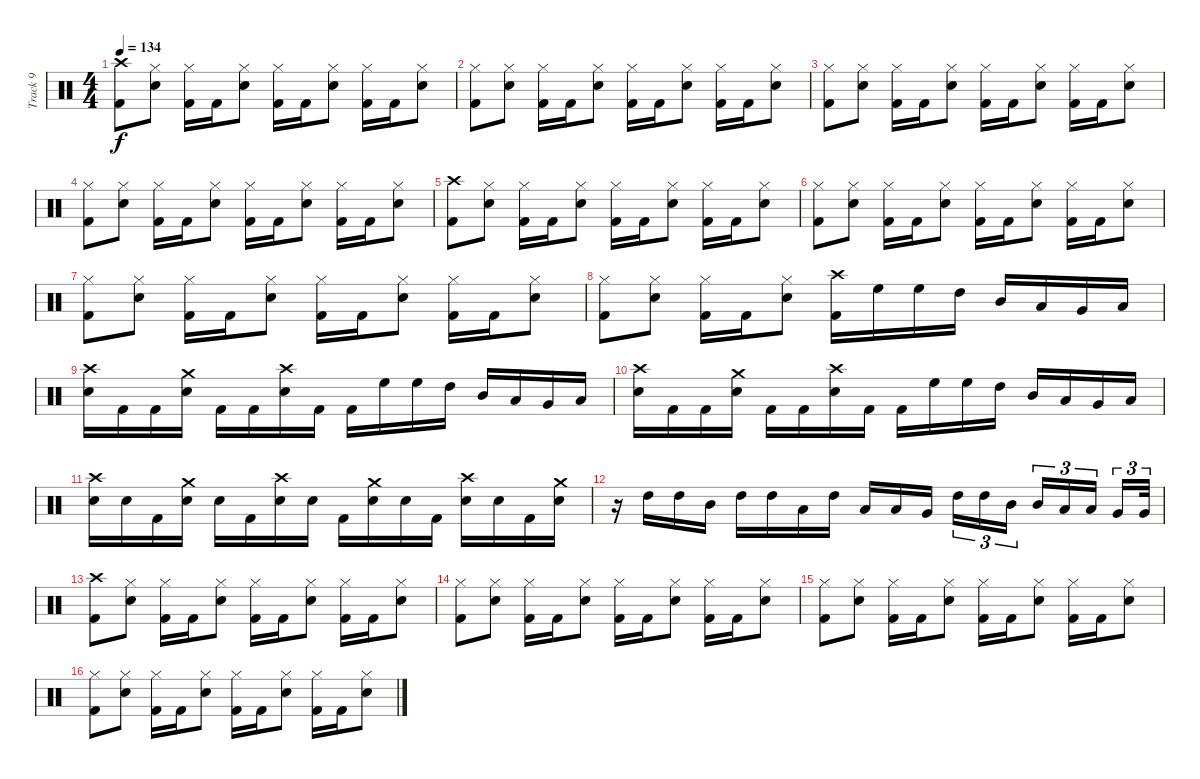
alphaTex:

\track ("Track 9" "Track 9") {instrument percussion}
\staff {score}
\articulation defaults
\ts (4 4)
\tempo 134
\clef neutral
\ks c
("Crash high (hit)" "Kick (hit) 2").8{dy f} ("Hi-Hat (closed)" "Snare (hit) 2").8 ("Hi-Hat (closed)" "Kick (hit) 2").16 "Kick (hit) 2".16 ("Hi-Hat (closed)" "Snare (hit) 2").8 ("Hi-Hat (closed)" "Kick (hit) 2").16 "Kick (hit) 2".16 ("Hi-Hat (closed)" "Snare (hit) 2").8 ("Hi-Hat (closed)" "Kick (hit) 2").16 "Kick (hit) 2".16 ("Hi-Hat (closed)" "Snare (hit) 2").8 |
("Hi-Hat (closed)" "Kick (hit) 2").8 ("Hi-Hat (closed)" "Snare (hit) 2").8 ("Hi-Hat (closed)" "Kick (hit) 2").16 "Kick (hit) 2".16 ("Hi-Hat (closed)" "Snare (hit) 2").8 ("Hi-Hat (closed)" "Kick (hit) 2").16 "Kick (hit) 2".16 ("Hi-Hat (closed)" "Snare (hit) 2").8 ("Hi-Hat (closed)" "Kick (hit) 2").16 "Kick (hit) 2".16 ("Hi-Hat (closed)" "Snare (hit) 2").8 |
("Hi-Hat (closed)" "Kick (hit) 2").8 ("Hi-Hat (closed)" "Snare (hit) 2").8 ("Hi-Hat (closed)" "Kick (hit) 2").16 "Kick (hit) 2".16 ("Hi-Hat (closed)" "Snare (hit) 2").8 ("Hi-Hat (closed)" "Kick (hit) 2").16 "Kick (hit) 2".16 ("Hi-Hat (closed)" "Snare (hit) 2").8 ("Hi-Hat (closed)" "Kick (hit) 2").16 "Kick (hit) 2".16 ("Hi-Hat (closed)" "Snare (hit) 2").8 |
("Hi-Hat (closed)" "Kick (hit) 2").8 ("Hi-Hat (closed)" "Snare (hit) 2").8 ("Hi-Hat (closed)" "Kick (hit) 2").16 "Kick (hit) 2".16 ("Hi-Hat (closed)" "Snare (hit) 2").8 ("Hi-Hat (closed)" "Kick (hit) 2").16 "Kick (hit) 2".16 ("Hi-Hat (closed)" "Snare (hit) 2").8 ("Hi-Hat (closed)" "Kick (hit) 2").16 "Kick (hit) 2".16 ("Hi-Hat (closed)" "Snare (hit) 2").8 |
("Crash high (hit)" "Kick (hit) 2").8 ("Hi-Hat (closed)" "Snare (hit) 2").8 ("Hi-Hat (closed)" "Kick (hit) 2").16 "Kick (hit) 2".16 ("Hi-Hat (closed)" "Snare (hit) 2").8 ("Hi-Hat (closed)" "Kick (hit) 2").16 "Kick (hit) 2".16 ("Hi-Hat (closed)" "Snare (hit) 2").8 ("Hi-Hat (closed)" "Kick (hit) 2").16 "Kick (hit) 2".16 ("Hi-Hat (closed)" "Snare (hit) 2").8 |
("Hi-Hat (closed)" "Kick (hit) 2").8 ("Hi-Hat (closed)" "Snare (hit) 2").8 ("Hi-Hat (closed)" "Kick (hit) 2").16 "Kick (hit) 2".16 ("Hi-Hat (closed)" "Snare (hit) 2").8 ("Hi-Hat (closed)" "Kick (hit) 2").16 "Kick (hit) 2".16 ("Hi-Hat (closed)" "Snare (hit) 2").8 ("Hi-Hat (closed)" "Kick (hit) 2").16 "Kick (hit) 2".16 ("Hi-Hat (closed)" "Snare (hit) 2").8 |
("Hi-Hat (closed)" "Kick (hit) 2").8 ("Hi-Hat (closed)" "Snare (hit) 2").8 ("Hi-Hat (closed)" "Kick (hit) 2").16 "Kick (hit) 2".16 ("Hi-Hat (closed)" "Snare (hit) 2").8 ("Hi-Hat (closed)" "Kick (hit) 2").16 "Kick (hit) 2".16 ("Hi-Hat (closed)" "Snare (hit) 2").8 ("Hi-Hat (closed)" "Kick (hit) 2").16 "Kick (hit) 2".16 ("Hi-Hat (closed)" "Snare (hit) 2").8 |
("Hi-Hat (closed)" "Kick (hit) 2").8 ("Hi-Hat (closed)" "Snare (hit) 2").8 ("Hi-Hat (closed)" "Kick (hit) 2").16 "Kick (hit) 2".16 ("Hi-Hat (closed)" "Snare (hit) 2").8 ("Crash high (hit)" "Kick (hit) 2").16 "High Floor Tom (hit)".16 "High Floor Tom (hit)".16 "High Tom (hit)".16 "Mid Tom (hit)".16 "Low Tom (hit)".16 "Very Low Tom (hit)".16 "Low Floor Tom (hit)".16 |
("Crash high (hit)" "Snare (hit) 2").16 "Kick (hit) 2".16 "Kick (hit) 2".16 ("Crash medium (hit)" "Snare (hit) 2").16 "Kick (hit) 2".16 "Kick (hit) 2".16 ("Crash high (hit)" "Snare (hit) 2").16 "Kick (hit) 2".16 "Kick (hit) 2".16 "High Floor Tom (hit)".16 "High Floor Tom (hit)".16 "High Tom (hit)".16 "Mid Tom (hit)".16 "Low Tom (hit)".16 "Very Low Tom (hit)".16 "Low Floor Tom (hit)".16 |
("Crash high (hit)" "Snare (hit) 2").16 "Kick (hit) 2".16 "Kick (hit) 2".16 ("Crash medium (hit)" "Snare (hit) 2").16 "Kick (hit) 2".16 "Kick (hit) 2".16 ("Crash high (hit)" "Snare (hit) 2").16 "Kick (hit) 2".16 "Kick (hit) 2".16 "High Floor Tom (hit)".16 "High Floor Tom (hit)".16 "High Tom (hit)".16 "Mid Tom (hit)".16 "Low Tom (hit)".16 "Very Low Tom (hit)".16 "Low Floor Tom (hit)".16 |
("Crash high (hit)" "Snare (hit) 2").16 "Snare (hit) 2".16 "Kick (hit) 2".16 ("Crash medium (hit)" "Snare (hit) 2").16 "Snare (hit) 2".16 "Kick (hit) 2".16 ("Crash high (hit)" "Snare (hit) 2").16 "Snare (hit) 2".16 "Kick (hit) 2".16 ("Crash medium (hit)" "Snare (hit) 2").16 "Snare (hit) 2".16 "Kick (hit) 2".16 ("Crash high (hit)" "Snare (hit) 2").16 "Snare (hit) 2".16 "Kick (hit) 2".16 ("Crash medium (hit)" "Snare (hit) 2").16 |
r.16 "High Tom (hit)".16 "High Tom (hit)".16 "Mid Tom (hit)".16 "High Tom (hit)".16 "High Tom (hit)".16 "Low Tom (hit)".16 "High Tom (hit)".16 "Low Tom (hit)".16 "Low Tom (hit)".16 "Very Low Tom (hit)".16{beam splitsecondary} "High Tom (hit)".16{tu (3 2)} "High Tom (hit)".16{tu (3 2)} "Mid Tom (hit)".16{tu (3 2) beam splitsecondary} "Mid Tom (hit)".16{tu (3 2)} "Low Tom (hit)".16{tu (3 2)} "Low Tom (hit)".16{tu (3 2) beam splitsecondary} "Very Low Tom (hit)".16{tu (3 2)} "Very Low Tom (hit)".32{tu (3 2)} |
("Crash high (hit)" "Kick (hit) 2").8 ("Hi-Hat (closed)" "Snare (hit) 2").8 ("Hi-Hat (closed)" "Kick (hit) 2").16 "Kick (hit) 2".16 ("Hi-Hat (closed)" "Snare (hit) 2").8 ("Hi-Hat (closed)" "Kick (hit) 2").16 "Kick (hit) 2".16 ("Hi-Hat (closed)" "Snare (hit) 2").8 ("Hi-Hat (closed)" "Kick (hit) 2").16 "Kick (hit) 2".16 ("Hi-Hat (closed)" "Snare (hit) 2").8 |
("Hi-Hat (closed)" "Kick (hit) 2").8 ("Hi-Hat (closed)" "Snare (hit) 2").8 ("Hi-Hat (closed)" "Kick (hit) 2").16 "Kick (hit) 2".16 ("Hi-Hat (closed)" "Snare (hit) 2").8 ("Hi-Hat (closed)" "Kick (hit) 2").16 "Kick (hit) 2".16 ("Hi-Hat (closed)" "Snare (hit) 2").8 ("Hi-Hat (closed)" "Kick (hit) 2").16 "Kick (hit) 2".16 ("Hi-Hat (closed)" "Snare (hit) 2").8 |
("Hi-Hat (closed)" "Kick (hit) 2").8 ("Hi-Hat (closed)" "Snare (hit) 2").8 ("Hi-Hat (closed)" "Kick (hit) 2").16 "Kick (hit) 2".16 ("Hi-Hat (closed)" "Snare (hit) 2").8 ("Hi-Hat (closed)" "Kick (hit) 2").16 "Kick (hit) 2".16 ("Hi-Hat (closed)" "Snare (hit) 2").8 ("Hi-Hat (closed)" "Kick (hit) 2").16 "Kick (hit) 2".16 ("Hi-Hat (closed)" "Snare (hit) 2").8 |
("Hi-Hat (closed)" "Kick (hit) 2").8 ("Hi-Hat (closed)" "Snare (hit) 2").8 ("Hi-Hat (closed)" "Kick (hit) 2").16 "Kick (hit) 2".16 ("Hi-Hat (closed)" "Snare (hit) 2").8 ("Hi-Hat (closed)" "Kick (hit) 2").16 "Kick (hit) 2".16 ("Hi-Hat (closed)" "Snare (hit) 2").8 ("Hi-Hat (closed)" "Kick (hit) 2").16 "Kick (hit) 2".16 ("Hi-Hat (closed)" "Snare (hit) 2").8
